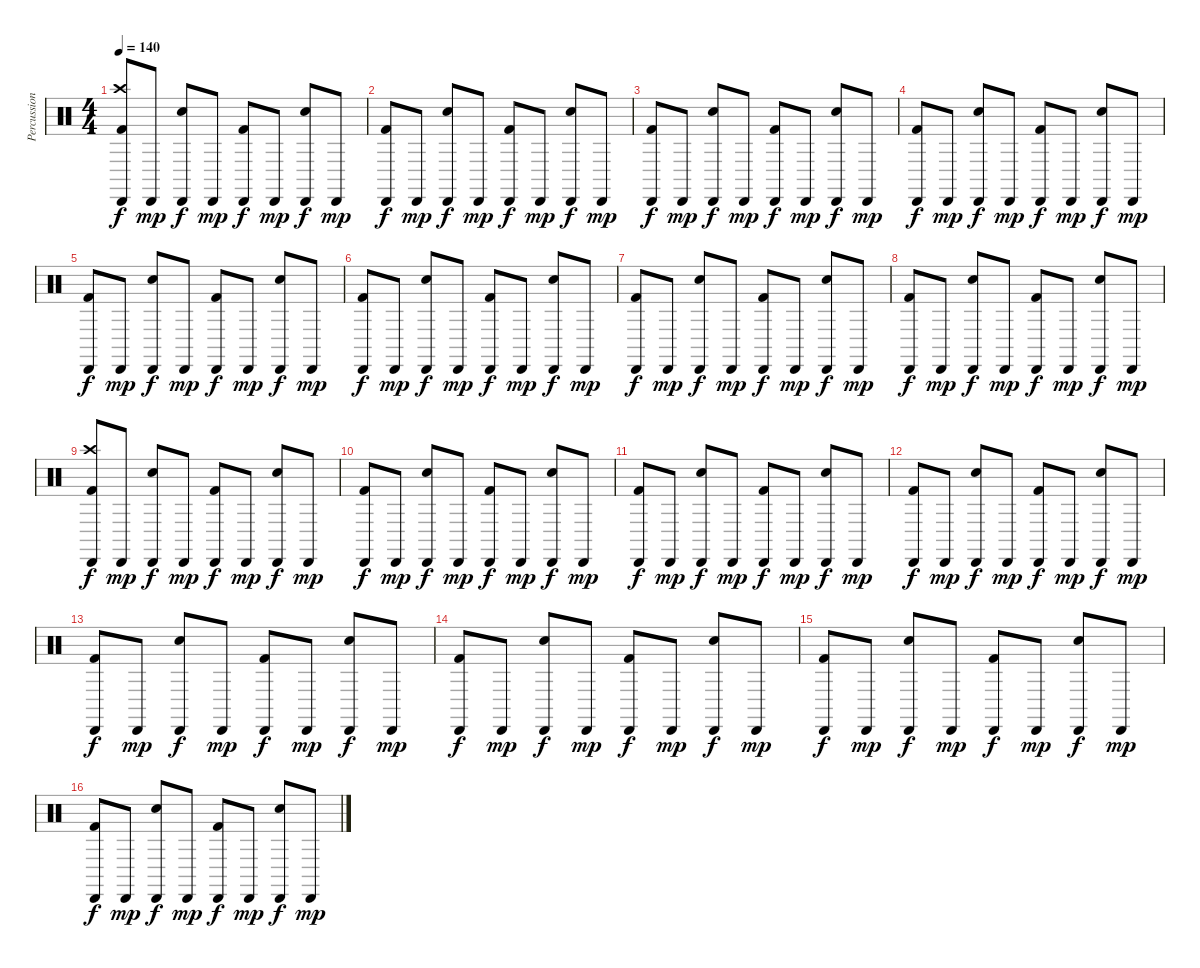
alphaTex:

\track ("Percussion" "Percussion") {instrument percussion}
\staff {score}
\articulation defaults
\ts (4 4)
\tempo 140
\clef neutral
\ks c
("Cabasa (hit)" "Crash high (hit)" "Kick (hit) 2").8{dy f} "Cabasa (hit)".8{dy mp} ("Cabasa (hit)" "Electric Snare (hit)").8{dy f} "Cabasa (hit)".8{dy mp} ("Cabasa (hit)" "Kick (hit) 2").8{dy f} "Cabasa (hit)".8{dy mp} ("Cabasa (hit)" "Electric Snare (hit)").8{dy f} "Cabasa (hit)".8{dy mp} |
("Cabasa (hit)" "Kick (hit) 2").8{dy f} "Cabasa (hit)".8{dy mp} ("Cabasa (hit)" "Electric Snare (hit)").8{dy f} "Cabasa (hit)".8{dy mp} ("Cabasa (hit)" "Kick (hit) 2").8{dy f} "Cabasa (hit)".8{dy mp} ("Cabasa (hit)" "Electric Snare (hit)").8{dy f} "Cabasa (hit)".8{dy mp} |
("Cabasa (hit)" "Kick (hit) 2").8{dy f} "Cabasa (hit)".8{dy mp} ("Cabasa (hit)" "Electric Snare (hit)").8{dy f} "Cabasa (hit)".8{dy mp} ("Cabasa (hit)" "Kick (hit) 2").8{dy f} "Cabasa (hit)".8{dy mp} ("Cabasa (hit)" "Electric Snare (hit)").8{dy f} "Cabasa (hit)".8{dy mp} |
("Cabasa (hit)" "Kick (hit) 2").8{dy f} "Cabasa (hit)".8{dy mp} ("Cabasa (hit)" "Electric Snare (hit)").8{dy f} "Cabasa (hit)".8{dy mp} ("Cabasa (hit)" "Kick (hit) 2").8{dy f} "Cabasa (hit)".8{dy mp} ("Cabasa (hit)" "Electric Snare (hit)").8{dy f} "Cabasa (hit)".8{dy mp} |
("Cabasa (hit)" "Kick (hit) 2").8{dy f} "Cabasa (hit)".8{dy mp} ("Cabasa (hit)" "Electric Snare (hit)").8{dy f} "Cabasa (hit)".8{dy mp} ("Cabasa (hit)" "Kick (hit) 2").8{dy f} "Cabasa (hit)".8{dy mp} ("Cabasa (hit)" "Electric Snare (hit)").8{dy f} "Cabasa (hit)".8{dy mp} |
("Cabasa (hit)" "Kick (hit) 2").8{dy f} "Cabasa (hit)".8{dy mp} ("Cabasa (hit)" "Electric Snare (hit)").8{dy f} "Cabasa (hit)".8{dy mp} ("Cabasa (hit)" "Kick (hit) 2").8{dy f} "Cabasa (hit)".8{dy mp} ("Cabasa (hit)" "Electric Snare (hit)").8{dy f} "Cabasa (hit)".8{dy mp} |
("Cabasa (hit)" "Kick (hit) 2").8{dy f} "Cabasa (hit)".8{dy mp} ("Cabasa (hit)" "Electric Snare (hit)").8{dy f} "Cabasa (hit)".8{dy mp} ("Cabasa (hit)" "Kick (hit) 2").8{dy f} "Cabasa (hit)".8{dy mp} ("Cabasa (hit)" "Electric Snare (hit)").8{dy f} "Cabasa (hit)".8{dy mp} |
("Cabasa (hit)" "Kick (hit) 2").8{dy f} "Cabasa (hit)".8{dy mp} ("Cabasa (hit)" "Electric Snare (hit)").8{dy f} "Cabasa (hit)".8{dy mp} ("Cabasa (hit)" "Kick (hit) 2").8{dy f} "Cabasa (hit)".8{dy mp} ("Cabasa (hit)" "Electric Snare (hit)").8{dy f} "Cabasa (hit)".8{dy mp} |
("Cabasa (hit)" "Crash high (hit)" "Kick (hit) 2").8{dy f} "Cabasa (hit)".8{dy mp} ("Cabasa (hit)" "Electric Snare (hit)").8{dy f} "Cabasa (hit)".8{dy mp} ("Cabasa (hit)" "Kick (hit) 2").8{dy f} "Cabasa (hit)".8{dy mp} ("Cabasa (hit)" "Electric Snare (hit)").8{dy f} "Cabasa (hit)".8{dy mp} |
("Cabasa (hit)" "Kick (hit) 2").8{dy f} "Cabasa (hit)".8{dy mp} ("Cabasa (hit)" "Electric Snare (hit)").8{dy f} "Cabasa (hit)".8{dy mp} ("Cabasa (hit)" "Kick (hit) 2").8{dy f} "Cabasa (hit)".8{dy mp} ("Cabasa (hit)" "Electric Snare (hit)").8{dy f} "Cabasa (hit)".8{dy mp} |
("Cabasa (hit)" "Kick (hit) 2").8{dy f} "Cabasa (hit)".8{dy mp} ("Cabasa (hit)" "Electric Snare (hit)").8{dy f} "Cabasa (hit)".8{dy mp} ("Cabasa (hit)" "Kick (hit) 2").8{dy f} "Cabasa (hit)".8{dy mp} ("Cabasa (hit)" "Electric Snare (hit)").8{dy f} "Cabasa (hit)".8{dy mp} |
("Cabasa (hit)" "Kick (hit) 2").8{dy f} "Cabasa (hit)".8{dy mp} ("Cabasa (hit)" "Electric Snare (hit)").8{dy f} "Cabasa (hit)".8{dy mp} ("Cabasa (hit)" "Kick (hit) 2").8{dy f} "Cabasa (hit)".8{dy mp} ("Cabasa (hit)" "Electric Snare (hit)").8{dy f} "Cabasa (hit)".8{dy mp} |
("Cabasa (hit)" "Kick (hit) 2").8{dy f} "Cabasa (hit)".8{dy mp} ("Cabasa (hit)" "Electric Snare (hit)").8{dy f} "Cabasa (hit)".8{dy mp} ("Cabasa (hit)" "Kick (hit) 2").8{dy f} "Cabasa (hit)".8{dy mp} ("Cabasa (hit)" "Electric Snare (hit)").8{dy f} "Cabasa (hit)".8{dy mp} |
("Cabasa (hit)" "Kick (hit) 2").8{dy f} "Cabasa (hit)".8{dy mp} ("Cabasa (hit)" "Electric Snare (hit)").8{dy f} "Cabasa (hit)".8{dy mp} ("Cabasa (hit)" "Kick (hit) 2").8{dy f} "Cabasa (hit)".8{dy mp} ("Cabasa (hit)" "Electric Snare (hit)").8{dy f} "Cabasa (hit)".8{dy mp} |
("Cabasa (hit)" "Kick (hit) 2").8{dy f} "Cabasa (hit)".8{dy mp} ("Cabasa (hit)" "Electric Snare (hit)").8{dy f} "Cabasa (hit)".8{dy mp} ("Cabasa (hit)" "Kick (hit) 2").8{dy f} "Cabasa (hit)".8{dy mp} ("Cabasa (hit)" "Electric Snare (hit)").8{dy f} "Cabasa (hit)".8{dy mp} |
("Cabasa (hit)" "Kick (hit) 2").8{dy f} "Cabasa (hit)".8{dy mp} ("Cabasa (hit)" "Electric Snare (hit)").8{dy f} "Cabasa (hit)".8{dy mp} ("Cabasa (hit)" "Kick (hit) 2").8{dy f} "Cabasa (hit)".8{dy mp} ("Cabasa (hit)" "Electric Snare (hit)").8{dy f} "Cabasa (hit)".8{dy mp}
